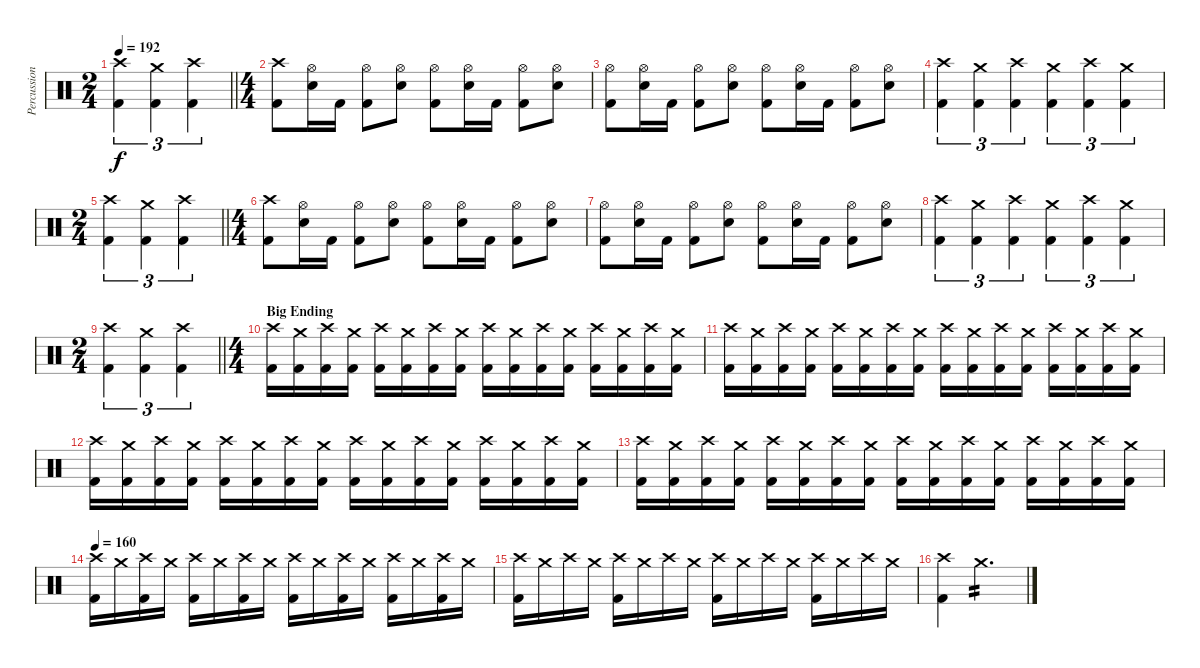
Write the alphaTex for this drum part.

\track ("Percussion" "Percussion") {instrument percussion}
\staff {score}
\articulation defaults
\ts (2 4)
\tempo 192
\clef neutral
\barLineRight lightlight
\ks c
("Crash high (hit)" "Kick (hit) 2").4{tu (3 2) dy f} ("Crash medium (hit)" "Kick (hit) 2").4{tu (3 2)} ("Crash high (hit)" "Kick (hit) 2").4{tu (3 2)} |
\ts (4 4)
("Crash high (hit)" "Kick (hit) 2").8 ("Hi-Hat (open)" "Electric Snare (hit)").16 "Kick (hit) 2".16 ("Hi-Hat (open)" "Kick (hit) 2").8 ("Hi-Hat (open)" "Electric Snare (hit)").8 ("Hi-Hat (open)" "Kick (hit) 2").8 ("Hi-Hat (open)" "Electric Snare (hit)").16 "Kick (hit) 2".16 ("Hi-Hat (open)" "Kick (hit) 2").8 ("Hi-Hat (open)" "Electric Snare (hit)").8 |
("Hi-Hat (open)" "Kick (hit) 2").8 ("Hi-Hat (open)" "Electric Snare (hit)").16 "Kick (hit) 2".16 ("Hi-Hat (open)" "Kick (hit) 2").8 ("Hi-Hat (open)" "Electric Snare (hit)").8 ("Hi-Hat (open)" "Kick (hit) 2").8 ("Hi-Hat (open)" "Electric Snare (hit)").16 "Kick (hit) 2".16 ("Hi-Hat (open)" "Kick (hit) 2").8 ("Hi-Hat (open)" "Electric Snare (hit)").8 |
("Crash high (hit)" "Kick (hit) 2").4{tu (3 2)} ("Crash medium (hit)" "Kick (hit) 2").4{tu (3 2)} ("Crash high (hit)" "Kick (hit) 2").4{tu (3 2)} ("Crash medium (hit)" "Kick (hit) 2").4{tu (3 2)} ("Crash high (hit)" "Kick (hit) 2").4{tu (3 2)} ("Crash medium (hit)" "Kick (hit) 2").4{tu (3 2)} |
\ts (2 4)
\barLineRight lightlight
("Crash high (hit)" "Kick (hit) 2").4{tu (3 2)} ("Crash medium (hit)" "Kick (hit) 2").4{tu (3 2)} ("Crash high (hit)" "Kick (hit) 2").4{tu (3 2)} |
\ts (4 4)
("Crash high (hit)" "Kick (hit) 2").8 ("Hi-Hat (open)" "Electric Snare (hit)").16 "Kick (hit) 2".16 ("Hi-Hat (open)" "Kick (hit) 2").8 ("Hi-Hat (open)" "Electric Snare (hit)").8 ("Hi-Hat (open)" "Kick (hit) 2").8 ("Hi-Hat (open)" "Electric Snare (hit)").16 "Kick (hit) 2".16 ("Hi-Hat (open)" "Kick (hit) 2").8 ("Hi-Hat (open)" "Electric Snare (hit)").8 |
("Hi-Hat (open)" "Kick (hit) 2").8 ("Hi-Hat (open)" "Electric Snare (hit)").16 "Kick (hit) 2".16 ("Hi-Hat (open)" "Kick (hit) 2").8 ("Hi-Hat (open)" "Electric Snare (hit)").8 ("Hi-Hat (open)" "Kick (hit) 2").8 ("Hi-Hat (open)" "Electric Snare (hit)").16 "Kick (hit) 2".16 ("Hi-Hat (open)" "Kick (hit) 2").8 ("Hi-Hat (open)" "Electric Snare (hit)").8 |
("Crash high (hit)" "Kick (hit) 2").4{tu (3 2)} ("Crash medium (hit)" "Kick (hit) 2").4{tu (3 2)} ("Crash high (hit)" "Kick (hit) 2").4{tu (3 2)} ("Crash medium (hit)" "Kick (hit) 2").4{tu (3 2)} ("Crash high (hit)" "Kick (hit) 2").4{tu (3 2)} ("Crash medium (hit)" "Kick (hit) 2").4{tu (3 2)} |
\ts (2 4)
\barLineRight lightlight
("Crash high (hit)" "Kick (hit) 2").4{tu (3 2)} ("Crash medium (hit)" "Kick (hit) 2").4{tu (3 2)} ("Crash high (hit)" "Kick (hit) 2").4{tu (3 2)} |
\ts (4 4)
\section ("" "Big Ending")
("Crash high (hit)" "Kick (hit) 2").16 ("Crash medium (hit)" "Kick (hit) 2").16 ("Crash high (hit)" "Kick (hit) 2").16 ("Crash medium (hit)" "Kick (hit) 2").16 ("Crash high (hit)" "Kick (hit) 2").16 ("Crash medium (hit)" "Kick (hit) 2").16 ("Crash high (hit)" "Kick (hit) 2").16 ("Crash medium (hit)" "Kick (hit) 2").16 ("Crash high (hit)" "Kick (hit) 2").16 ("Crash medium (hit)" "Kick (hit) 2").16 ("Crash high (hit)" "Kick (hit) 2").16 ("Crash medium (hit)" "Kick (hit) 2").16 ("Crash high (hit)" "Kick (hit) 2").16 ("Crash medium (hit)" "Kick (hit) 2").16 ("Crash high (hit)" "Kick (hit) 2").16 ("Crash medium (hit)" "Kick (hit) 2").16 |
("Crash high (hit)" "Kick (hit) 2").16 ("Crash medium (hit)" "Kick (hit) 2").16 ("Crash high (hit)" "Kick (hit) 2").16 ("Crash medium (hit)" "Kick (hit) 2").16 ("Crash high (hit)" "Kick (hit) 2").16 ("Crash medium (hit)" "Kick (hit) 2").16 ("Crash high (hit)" "Kick (hit) 2").16 ("Crash medium (hit)" "Kick (hit) 2").16 ("Crash high (hit)" "Kick (hit) 2").16 ("Crash medium (hit)" "Kick (hit) 2").16 ("Crash high (hit)" "Kick (hit) 2").16 ("Crash medium (hit)" "Kick (hit) 2").16 ("Crash high (hit)" "Kick (hit) 2").16 ("Crash medium (hit)" "Kick (hit) 2").16 ("Crash high (hit)" "Kick (hit) 2").16 ("Crash medium (hit)" "Kick (hit) 2").16 |
("Crash high (hit)" "Kick (hit) 2").16 ("Crash medium (hit)" "Kick (hit) 2").16 ("Crash high (hit)" "Kick (hit) 2").16 ("Crash medium (hit)" "Kick (hit) 2").16 ("Crash high (hit)" "Kick (hit) 2").16 ("Crash medium (hit)" "Kick (hit) 2").16 ("Crash high (hit)" "Kick (hit) 2").16 ("Crash medium (hit)" "Kick (hit) 2").16 ("Crash high (hit)" "Kick (hit) 2").16 ("Crash medium (hit)" "Kick (hit) 2").16 ("Crash high (hit)" "Kick (hit) 2").16 ("Crash medium (hit)" "Kick (hit) 2").16 ("Crash high (hit)" "Kick (hit) 2").16 ("Crash medium (hit)" "Kick (hit) 2").16 ("Crash high (hit)" "Kick (hit) 2").16 ("Crash medium (hit)" "Kick (hit) 2").16 |
("Crash high (hit)" "Kick (hit) 2").16 ("Crash medium (hit)" "Kick (hit) 2").16 ("Crash high (hit)" "Kick (hit) 2").16 ("Crash medium (hit)" "Kick (hit) 2").16 ("Crash high (hit)" "Kick (hit) 2").16 ("Crash medium (hit)" "Kick (hit) 2").16 ("Crash high (hit)" "Kick (hit) 2").16 ("Crash medium (hit)" "Kick (hit) 2").16 ("Crash high (hit)" "Kick (hit) 2").16 ("Crash medium (hit)" "Kick (hit) 2").16 ("Crash high (hit)" "Kick (hit) 2").16 ("Crash medium (hit)" "Kick (hit) 2").16 ("Crash high (hit)" "Kick (hit) 2").16 ("Crash medium (hit)" "Kick (hit) 2").16 ("Crash high (hit)" "Kick (hit) 2").16 ("Crash medium (hit)" "Kick (hit) 2").16 |
\tempo 160
("Crash high (hit)" "Kick (hit) 2").16 "Crash medium (hit)".16 ("Crash high (hit)" "Kick (hit) 2").16 "Crash medium (hit)".16 ("Crash high (hit)" "Kick (hit) 2").16 "Crash medium (hit)".16 ("Crash high (hit)" "Kick (hit) 2").16 "Crash medium (hit)".16 ("Crash high (hit)" "Kick (hit) 2").16 "Crash medium (hit)".16 ("Crash high (hit)" "Kick (hit) 2").16 "Crash medium (hit)".16 ("Crash high (hit)" "Kick (hit) 2").16 "Crash medium (hit)".16 ("Crash high (hit)" "Kick (hit) 2").16 "Crash medium (hit)".16 |
("Crash high (hit)" "Kick (hit) 2").16 "Crash medium (hit)".16 "Crash high (hit)".16 "Crash medium (hit)".16 ("Crash high (hit)" "Kick (hit) 2").16 "Crash medium (hit)".16 "Crash high (hit)".16 "Crash medium (hit)".16 ("Crash high (hit)" "Kick (hit) 2").16 "Crash medium (hit)".16 "Crash high (hit)".16 "Crash medium (hit)".16 ("Crash high (hit)" "Kick (hit) 2").16 "Crash medium (hit)".16 "Crash high (hit)".16 "Crash medium (hit)".16 |
("Crash high (hit)" "Kick (hit) 2").4 "Crash medium (hit)".2{d tp 2}
